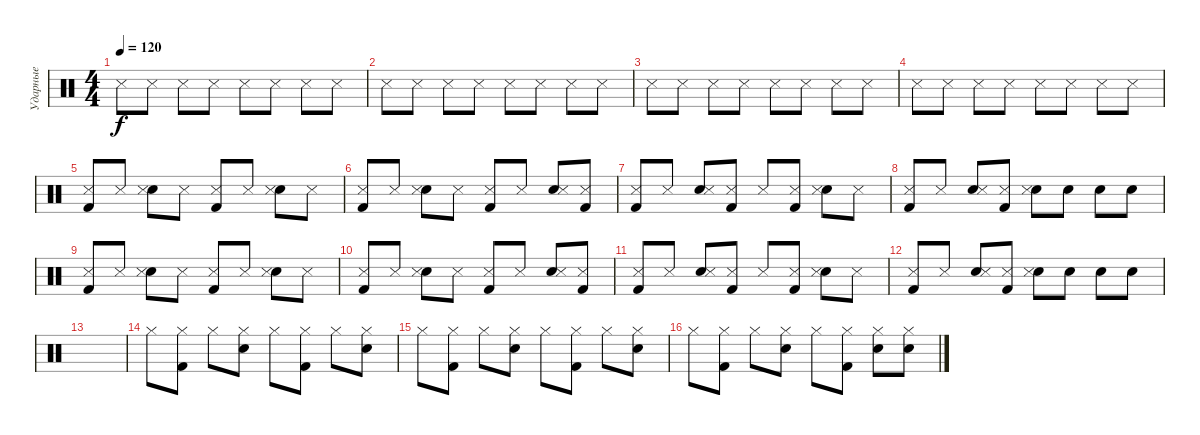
\track ("Ударные" "Ударные") {instrument percussion}
\staff {score}
\articulation defaults
\ts (4 4)
\tempo 120
\clef neutral
\ks c "Snare (side stick) 3".8{dy f} "Snare (side stick) 3".8 "Snare (side stick) 3".8 "Snare (side stick) 3".8 "Snare (side stick) 3".8 "Snare (side stick) 3".8 "Snare (side stick) 3".8 "Snare (side stick) 3".8
|
"Snare (side stick) 3".8 "Snare (side stick) 3".8 "Snare (side stick) 3".8 "Snare (side stick) 3".8 "Snare (side stick) 3".8 "Snare (side stick) 3".8 "Snare (side stick) 3".8 "Snare (side stick) 3".8 |
"Snare (side stick) 3".8 "Snare (side stick) 3".8 "Snare (side stick) 3".8 "Snare (side stick) 3".8 "Snare (side stick) 3".8 "Snare (side stick) 3".8 "Snare (side stick) 3".8 "Snare (side stick) 3".8 |
"Snare (side stick) 3".8 "Snare (side stick) 3".8 "Snare (side stick) 3".8 "Snare (side stick) 3".8 "Snare (side stick) 3".8 "Snare (side stick) 3".8 "Snare (side stick) 3".8 "Snare (side stick) 3".8 |
("Kick (hit) 2" "Snare (side stick) 3").8 "Snare (side stick) 3".8 ("Electric Snare (hit)" "Snare (side stick) 3").8 "Snare (side stick) 3".8 ("Kick (hit) 2" "Snare (side stick) 3").8 "Snare (side stick) 3".8 ("Electric Snare (hit)" "Snare (side stick) 3").8 "Snare (side stick) 3".8 |
("Kick (hit) 2" "Snare (side stick) 3").8 "Snare (side stick) 3".8 ("Electric Snare (hit)" "Snare (side stick) 3").8 "Snare (side stick) 3".8 ("Kick (hit) 2" "Snare (side stick) 3").8 "Snare (side stick) 3".8 ("Electric Snare (hit)" "Snare (side stick) 3").8 ("Kick (hit) 2" "Snare (side stick) 3").8 |
("Kick (hit) 2" "Snare (side stick) 3").8 "Snare (side stick) 3".8 ("Electric Snare (hit)" "Snare (side stick) 3").8 ("Kick (hit) 2" "Snare (side stick) 3").8 "Snare (side stick) 3".8 ("Kick (hit) 2" "Snare (side stick) 3").8 ("Electric Snare (hit)" "Snare (side stick) 3").8 "Snare (side stick) 3".8 |
("Kick (hit) 2" "Snare (side stick) 3").8 "Snare (side stick) 3".8 ("Electric Snare (hit)" "Snare (side stick) 3").8 ("Kick (hit) 2" "Snare (side stick) 3").8 ("Electric Snare (hit)" "Snare (side stick) 3").8 "Electric Snare (hit)".8 "Electric Snare (hit)".8 "Electric Snare (hit)".8 |
("Kick (hit) 2" "Snare (side stick) 3").8 "Snare (side stick) 3".8 ("Electric Snare (hit)" "Snare (side stick) 3").8 "Snare (side stick) 3".8 ("Kick (hit) 2" "Snare (side stick) 3").8 "Snare (side stick) 3".8 ("Electric Snare (hit)" "Snare (side stick) 3").8 "Snare (side stick) 3".8 |
("Kick (hit) 2" "Snare (side stick) 3").8 "Snare (side stick) 3".8 ("Electric Snare (hit)" "Snare (side stick) 3").8 "Snare (side stick) 3".8 ("Kick (hit) 2" "Snare (side stick) 3").8 "Snare (side stick) 3".8 ("Electric Snare (hit)" "Snare (side stick) 3").8 ("Kick (hit) 2" "Snare (side stick) 3").8 |
("Kick (hit) 2" "Snare (side stick) 3").8 "Snare (side stick) 3".8 ("Electric Snare (hit)" "Snare (side stick) 3").8 ("Kick (hit) 2" "Snare (side stick) 3").8 "Snare (side stick) 3".8 ("Kick (hit) 2" "Snare (side stick) 3").8 ("Electric Snare (hit)" "Snare (side stick) 3").8 "Snare (side stick) 3".8 |
("Kick (hit) 2" "Snare (side stick) 3").8 "Snare (side stick) 3".8 ("Electric Snare (hit)" "Snare (side stick) 3").8 ("Kick (hit) 2" "Snare (side stick) 3").8 ("Electric Snare (hit)" "Snare (side stick) 3").8 "Electric Snare (hit)".8 "Electric Snare (hit)".8 "Electric Snare (hit)".8 |
|
"Hi-Hat (closed)".8 ("Kick (hit) 2" "Hi-Hat (closed)").8 "Hi-Hat (closed)".8 ("Electric Snare (hit)" "Hi-Hat (closed)").8 "Hi-Hat (closed)".8 ("Kick (hit) 2" "Hi-Hat (closed)").8 "Hi-Hat (closed)".8 ("Electric Snare (hit)" "Hi-Hat (closed)").8 |
"Hi-Hat (closed)".8 ("Kick (hit) 2" "Hi-Hat (closed)").8 "Hi-Hat (closed)".8 ("Electric Snare (hit)" "Hi-Hat (closed)").8 "Hi-Hat (closed)".8 ("Kick (hit) 2" "Hi-Hat (closed)").8 "Hi-Hat (closed)".8 ("Electric Snare (hit)" "Hi-Hat (closed)").8 |
"Hi-Hat (closed)".8 ("Kick (hit) 2" "Hi-Hat (closed)").8 "Hi-Hat (closed)".8 ("Electric Snare (hit)" "Hi-Hat (closed)").8 "Hi-Hat (closed)".8 ("Kick (hit) 2" "Hi-Hat (closed)").8 ("Electric Snare (hit)" "Hi-Hat (closed)").8 ("Electric Snare (hit)" "Hi-Hat (closed)").8
